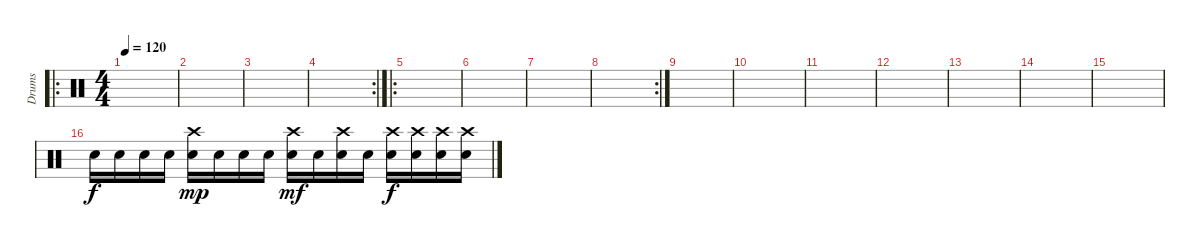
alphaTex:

\track ("Drums" "Drums") {instrument percussion}
\staff {score}
\articulation defaults
\ro
\ts (4 4)
\tempo 120
\clef neutral
\ks c
|
|
|
\rc 2
|
\ro
|
|
|
\rc 2
|
|
|
|
|
|
|
|
"Snare (hit) 2".16 "Snare (hit) 2".16 "Snare (hit) 2".16 "Snare (hit) 2".16 ("Crash high (hit)" "Snare (hit) 2").16{dy mp} "Snare (hit) 2".16 "Snare (hit) 2".16 "Snare (hit) 2".16 ("Crash high (hit)" "Snare (hit) 2").16{dy mf} "Snare (hit) 2".16 ("Crash high (hit)" "Snare (hit) 2").16 "Snare (hit) 2".16 ("Crash high (hit)" "Snare (hit) 2").16{dy f} ("Crash high (hit)" "Snare (hit) 2").16 ("Crash high (hit)" "Snare (hit) 2").16 ("Crash high (hit)" "Snare (hit) 2").16
